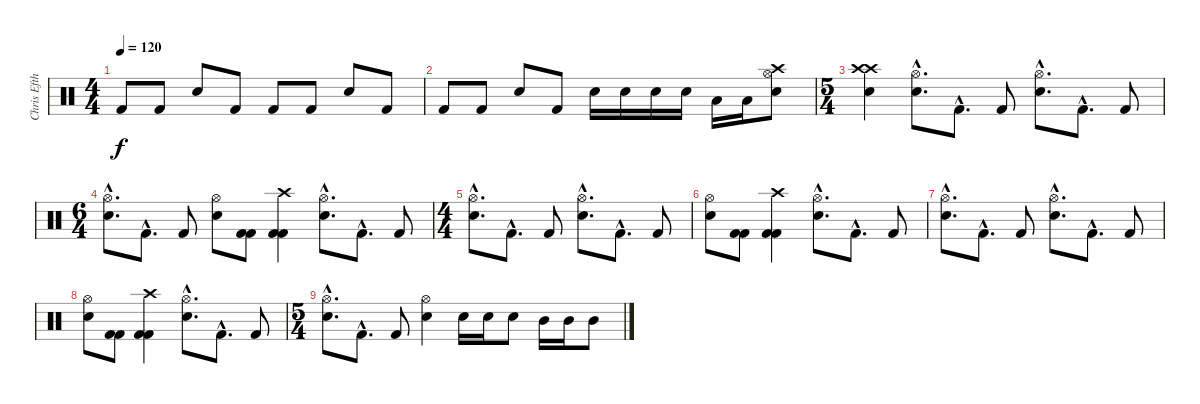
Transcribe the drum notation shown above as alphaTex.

\track ("Chris Efthimiadis" "Chris Efth") {instrument percussion}
\staff {score}
\articulation defaults
\ts (4 4)
\tempo 120
\clef neutral
\ks c "Kick (hit) 2".8{dy f} "Kick (hit) 2".8 "Snare (hit) 2".8 "Kick (hit) 2".8 "Kick (hit) 2".8 "Kick (hit) 2".8 "Snare (hit) 2".8 "Kick (hit) 2".8
|
"Kick (hit) 2".8 "Kick (hit) 2".8 "Snare (hit) 2".8 "Kick (hit) 2".8 "Snare (hit) 2".16 "Snare (hit) 2".16 "Snare (hit) 2".16 "Snare (hit) 2".16 "Low Tom (hit)".16 "Low Tom (hit)".16 ("Snare (hit) 2" "Crash high (hit)" "Hi-Hat (open)").8 |
\ts (5 4)
("Crash high (hit)" "Crash high (hit)" "Snare (hit) 2").4 ("Hi-Hat (open)"{hac} "Snare (hit) 2"{hac}).8{d} "Kick (hit) 2"{hac}.8{d} "Kick (hit) 2".8 ("Hi-Hat (open)"{hac} "Snare (hit) 2"{hac}).8{d} "Kick (hit) 2"{hac}.8{d} "Kick (hit) 2".8 |
\ts (6 4)
("Hi-Hat (open)"{hac} "Snare (hit) 2"{hac}).8{d} "Kick (hit) 2"{hac}.8{d} "Kick (hit) 2".8 ("Hi-Hat (open)" "Snare (hit) 2").8 ("Kick (hit) 2" "Kick (hit) 2").8 ("Crash high (hit)" "Kick (hit) 2" "Kick (hit) 2").4 ("Hi-Hat (open)"{hac} "Snare (hit) 2"{hac}).8{d} "Kick (hit) 2"{hac}.8{d} "Kick (hit) 2".8 |
\ts (4 4)
("Hi-Hat (open)"{hac} "Snare (hit) 2"{hac}).8{d} "Kick (hit) 2"{hac}.8{d} "Kick (hit) 2".8 ("Snare (hit) 2"{hac} "Hi-Hat (open)"{hac}).8{d} "Kick (hit) 2"{hac}.8{d} "Kick (hit) 2".8 |
("Hi-Hat (open)" "Snare (hit) 2").8 ("Kick (hit) 2" "Kick (hit) 2").8 ("Crash high (hit)" "Kick (hit) 2" "Kick (hit) 2").4 ("Hi-Hat (open)"{hac} "Snare (hit) 2"{hac}).8{d} "Kick (hit) 2"{hac}.8{d} "Kick (hit) 2".8 |
("Hi-Hat (open)"{hac} "Snare (hit) 2"{hac}).8{d} "Kick (hit) 2"{hac}.8{d} "Kick (hit) 2".8 ("Snare (hit) 2"{hac} "Hi-Hat (open)"{hac}).8{d} "Kick (hit) 2"{hac}.8{d} "Kick (hit) 2".8 |
("Hi-Hat (open)" "Snare (hit) 2").8 ("Kick (hit) 2" "Kick (hit) 2").8 ("Crash high (hit)" "Kick (hit) 2" "Kick (hit) 2").4 ("Hi-Hat (open)"{hac} "Snare (hit) 2"{hac}).8{d} "Kick (hit) 2"{hac}.8{d} "Kick (hit) 2".8 |
\ts (5 4)
("Hi-Hat (open)"{hac} "Snare (hit) 2"{hac}).8{d} "Kick (hit) 2"{hac}.8{d} "Kick (hit) 2".8 ("Snare (hit) 2" "Hi-Hat (open)").4 "Snare (hit) 2".16 "Snare (hit) 2".16 "Snare (hit) 2".8 "Mid Tom (hit)".16 "Mid Tom (hit)".16 "Mid Tom (hit)".8
